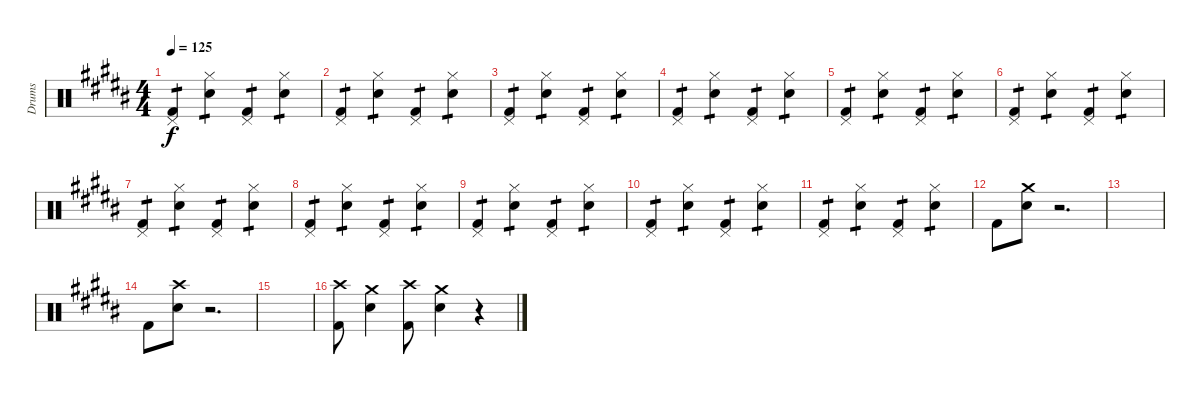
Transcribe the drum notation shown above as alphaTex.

\track ("Drums" "Drums") {instrument percussion}
\staff {score}
\articulation defaults
\ts (4 4)
\tempo 125
\clef neutral
\ks b
("Kick (hit) 2" "Pedal Hi-Hat (hit)").4{tp 1 dy f} ("Snare (hit) 2" "Hi-Hat (closed)").4{tp 1} ("Kick (hit) 2" "Pedal Hi-Hat (hit)").4{tp 1} ("Snare (hit) 2" "Hi-Hat (closed)").4{tp 1} |
("Kick (hit) 2" "Pedal Hi-Hat (hit)").4{tp 1} ("Snare (hit) 2" "Hi-Hat (closed)").4{tp 1} ("Kick (hit) 2" "Pedal Hi-Hat (hit)").4{tp 1} ("Snare (hit) 2" "Hi-Hat (closed)").4{tp 1} |
("Kick (hit) 2" "Pedal Hi-Hat (hit)").4{tp 1} ("Snare (hit) 2" "Hi-Hat (closed)").4{tp 1} ("Kick (hit) 2" "Pedal Hi-Hat (hit)").4{tp 1} ("Snare (hit) 2" "Hi-Hat (closed)").4{tp 1} |
("Kick (hit) 2" "Pedal Hi-Hat (hit)").4{tp 1} ("Snare (hit) 2" "Hi-Hat (closed)").4{tp 1} ("Kick (hit) 2" "Pedal Hi-Hat (hit)").4{tp 1} ("Snare (hit) 2" "Hi-Hat (closed)").4{tp 1} |
("Kick (hit) 2" "Pedal Hi-Hat (hit)").4{tp 1} ("Snare (hit) 2" "Hi-Hat (closed)").4{tp 1} ("Kick (hit) 2" "Pedal Hi-Hat (hit)").4{tp 1} ("Snare (hit) 2" "Hi-Hat (closed)").4{tp 1} |
("Kick (hit) 2" "Pedal Hi-Hat (hit)").4{tp 1} ("Snare (hit) 2" "Hi-Hat (closed)").4{tp 1} ("Kick (hit) 2" "Pedal Hi-Hat (hit)").4{tp 1} ("Snare (hit) 2" "Hi-Hat (closed)").4{tp 1} |
("Kick (hit) 2" "Pedal Hi-Hat (hit)").4{tp 1} ("Snare (hit) 2" "Hi-Hat (closed)").4{tp 1} ("Kick (hit) 2" "Pedal Hi-Hat (hit)").4{tp 1} ("Snare (hit) 2" "Hi-Hat (closed)").4{tp 1} |
("Kick (hit) 2" "Pedal Hi-Hat (hit)").4{tp 1} ("Snare (hit) 2" "Hi-Hat (closed)").4{tp 1} ("Kick (hit) 2" "Pedal Hi-Hat (hit)").4{tp 1} ("Snare (hit) 2" "Hi-Hat (closed)").4{tp 1} |
("Kick (hit) 2" "Pedal Hi-Hat (hit)").4{tp 1} ("Snare (hit) 2" "Hi-Hat (closed)").4{tp 1} ("Kick (hit) 2" "Pedal Hi-Hat (hit)").4{tp 1} ("Snare (hit) 2" "Hi-Hat (closed)").4{tp 1} |
("Kick (hit) 2" "Pedal Hi-Hat (hit)").4{tp 1} ("Snare (hit) 2" "Hi-Hat (closed)").4{tp 1} ("Kick (hit) 2" "Pedal Hi-Hat (hit)").4{tp 1} ("Snare (hit) 2" "Hi-Hat (closed)").4{tp 1} |
("Kick (hit) 2" "Pedal Hi-Hat (hit)").4{tp 1} ("Snare (hit) 2" "Hi-Hat (closed)").4{tp 1} ("Kick (hit) 2" "Pedal Hi-Hat (hit)").4{tp 1} ("Snare (hit) 2" "Hi-Hat (closed)").4{tp 1} |
"Kick (hit) 2".8 ("Snare (hit) 2" "Crash medium (hit)").8 r.2{d} |
|
"Kick (hit) 2".8 ("Snare (hit) 2" "Crash high (hit)").8 r.2{d} |
|
("Kick (hit) 2" "Crash high (hit)").8 ("Snare (hit) 2" "Crash medium (hit)").4 ("Kick (hit) 2" "Crash high (hit)").8 ("Snare (hit) 2" "Crash medium (hit)").4 r.4
